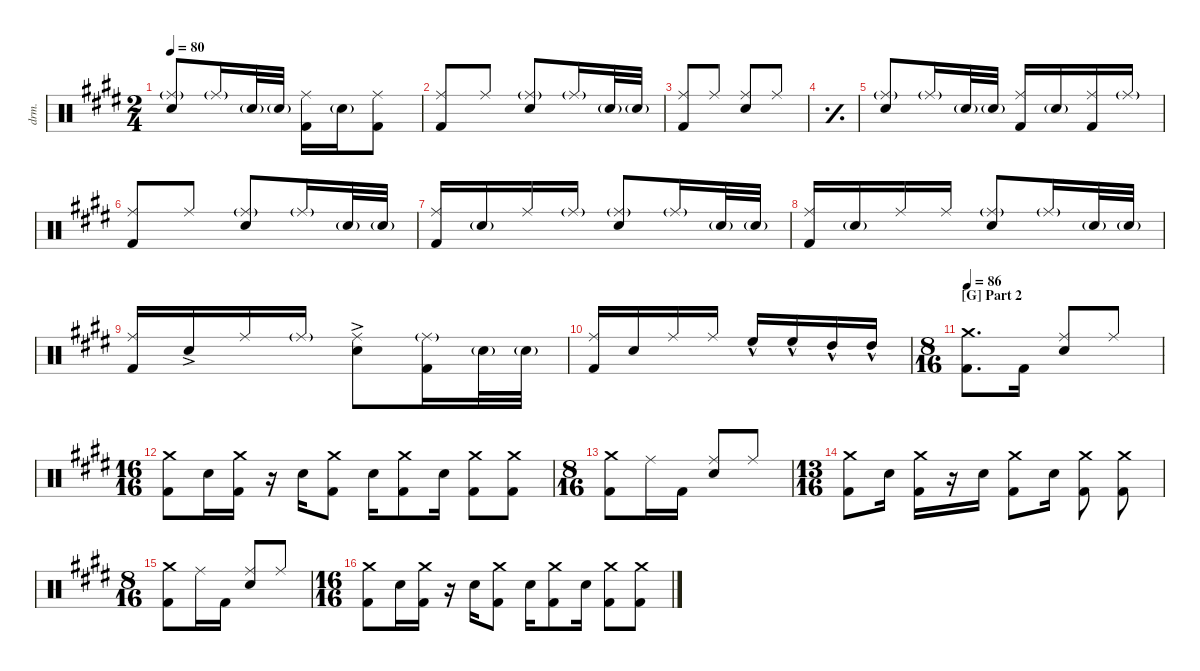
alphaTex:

\defaultSystemsLayout 4
\hideDynamics
\bracketExtendMode groupsimilarinstruments
\otherSystemsTrackNameOrientation horizontal
\chordDiagramsInScore
\track ("Drumkit" "drm.") {instrument percussion}
\staff {score}
\articulation defaults
\ts (2 4)
\tempo 80
\clef neutral
\scale
0.901139
\ks e
("Ride (middle)"{g acc forcenatural} "Snare (hit) 2"{acc forcenatural}).8{dy mf beam Up} "Ride (middle)"{g acc forcenatural}.16{beam Up} "Snare (hit) 2"{g acc forcenatural}.32{beam Up} "Snare (hit) 2"{g acc forcenatural}.32{beam Up} ("Ride (middle)"{acc forcenatural} "Kick (hit) 2"{acc forcenatural}).16 "Snare (hit) 2"{g acc forcenatural}.16 ("Ride (middle)"{acc forcenatural} "Kick (hit) 2"{acc forcenatural}).8 |
\scale
1.20033 ("Ride (middle)"{acc forcenatural} "Kick (hit) 2"{acc forcenatural}).8{beam Up} "Ride (middle)"{acc forcenatural}.8{beam Up} ("Ride (middle)"{g acc forcenatural} "Snare (hit) 2"{acc forcenatural}).8{beam Up} "Ride (middle)"{g acc forcenatural}.16{beam Up} "Snare (hit) 2"{g acc forcenatural}.32{beam Up} "Snare (hit) 2"{g acc forcenatural}.32{beam Up} |
\scale
0.880159 ("Kick (hit) 2"{acc forcenatural} "Ride (middle)"{acc forcenatural}).8{beam Up} "Ride (middle)"{acc forcenatural}.8{beam Up} ("Ride (middle)"{acc forcenatural} "Snare (hit) 2"{acc forcenatural}).8{beam Up} "Ride (middle)"{acc forcenatural}.8{beam Up} |
\simile simple
\scale
0.816181 |
\simile none
\scale
1.10333 ("Ride (middle)"{g acc forcenatural} "Snare (hit) 2"{acc forcenatural}).8{beam Up} "Ride (middle)"{g acc forcenatural}.16{beam Up} "Snare (hit) 2"{g acc forcenatural}.32{beam Up} "Snare (hit) 2"{g acc forcenatural}.32{beam Up} ("Ride (middle)"{acc forcenatural} "Kick (hit) 2"{acc forcenatural}).16{beam Up} "Snare (hit) 2"{g acc forcenatural}.16{beam Up} ("Kick (hit) 2"{acc forcenatural} "Ride (middle)"{acc forcenatural}).16{beam Up} "Ride (middle)"{g acc forcenatural}.16{beam Up} |
("Ride (middle)"{acc forcenatural} "Kick (hit) 2"{acc forcenatural}).8{beam Up} "Ride (middle)"{acc forcenatural}.8{beam Up} ("Ride (middle)"{g acc forcenatural} "Snare (hit) 2"{acc forcenatural}).8{beam Up} "Ride (middle)"{g acc forcenatural}.16{beam Up} "Snare (hit) 2"{g acc forcenatural}.32{beam Up} "Snare (hit) 2"{g acc forcenatural}.32{beam Up} |
("Kick (hit) 2"{acc forcenatural} "Ride (middle)"{acc forcenatural}).16{beam Up} "Snare (hit) 2"{g acc forcenatural}.16{beam Up} "Ride (middle)"{acc forcenatural}.16{beam Up} "Ride (middle)"{g acc forcenatural}.16{beam Up} ("Ride (middle)"{g acc forcenatural} "Snare (hit) 2"{acc forcenatural}).8{beam Up} "Ride (middle)"{g acc forcenatural}.16{beam Up} "Snare (hit) 2"{g acc forcenatural}.32{beam Up} "Snare (hit) 2"{g acc forcenatural}.32{beam Up} |
("Ride (middle)"{acc forcenatural} "Kick (hit) 2"{acc forcenatural}).16{beam Up} "Snare (hit) 2"{g acc forcenatural}.16{beam Up} "Ride (middle)"{acc forcenatural}.16{beam Up} "Ride (middle)"{acc forcenatural}.16{beam Up} ("Ride (middle)"{g acc forcenatural} "Snare (hit) 2"{acc forcenatural}).8{beam Up} "Ride (middle)"{g acc forcenatural}.16{beam Up} "Snare (hit) 2"{g acc forcenatural}.32{beam Up} "Snare (hit) 2"{g acc forcenatural}.32{beam Up} |
("Ride (middle)"{acc forcenatural} "Kick (hit) 2"{acc forcenatural}).16{beam Up} "Snare (hit) 2"{ac acc forcenatural}.16{beam Up} "Ride (middle)"{acc forcenatural}.16{beam Up} "Ride (middle)"{g acc forcenatural}.16{beam Up} ("Ride (middle)"{ac acc forcenatural} "Snare (hit) 2"{acc forcenatural}).8 ("Ride (middle)"{g acc forcenatural} "Kick (hit) 2"{acc forcenatural}).16 "Snare (hit) 2"{g acc forcenatural}.32 "Snare (hit) 2"{g acc forcenatural}.32 |
("Ride (middle)"{acc forcenatural} "Kick (hit) 2"{acc forcenatural}).16{beam Up} "Snare (hit) 2"{acc forcenatural}.16{beam Up} "Ride (middle)"{acc forcenatural}.16{beam Up} "Ride (middle)"{acc forcenatural}.16{beam Up} "High Floor Tom (hit)"{hac acc forcenatural}.16{beam Up} "High Floor Tom (hit)"{hac acc forcenatural}.16{beam Up} "High Tom (hit)"{hac acc forcenatural}.16{beam Up} "High Tom (hit)"{hac acc forcenatural}.16{beam Up} |
\ts (8 16)
\beaming (8 2 2)
\section ("G" "Part 2")
\tempo 86
("Crash medium (hit)"{acc forcenatural} "Kick (hit) 2"{acc forcenatural}).8{d} "Kick (hit) 2"{acc forcenatural}.16 ("Snare (hit) 2"{acc forcenatural} "Ride (middle)"{acc forcenatural}).8{beam Up} "Ride (middle)"{acc forcenatural}.8{beam Up} |
\ts (16 16)
\beaming (8 2 2 2 2)
("Crash medium (hit)"{acc forcenatural} "Kick (hit) 2"{acc forcenatural}).8 "Snare (hit) 2"{acc forcenatural}.16 ("Crash medium (hit)"{acc forcenatural} "Kick (hit) 2"{acc forcenatural}).16 r.16 "Snare (hit) 2"{acc forcenatural}.16 ("Crash medium (hit)"{acc forcenatural} "Kick (hit) 2"{acc forcenatural}).8 "Snare (hit) 2"{acc forcenatural}.16 ("Crash medium (hit)"{acc forcenatural} "Kick (hit) 2"{acc forcenatural}).8 "Snare (hit) 2"{acc forcenatural}.16 ("Crash medium (hit)"{acc forcenatural} "Kick (hit) 2"{acc forcenatural}).8 ("Crash medium (hit)"{acc forcenatural} "Kick (hit) 2"{acc forcenatural}).8 |
\ts (8 16)
\beaming (8 2 2)
("Crash medium (hit)"{acc forcenatural} "Kick (hit) 2"{acc forcenatural}).8 "Ride (middle)"{acc forcenatural}.16 "Kick (hit) 2"{acc forcenatural}.16 ("Ride (middle)"{acc forcenatural} "Snare (hit) 2"{acc forcenatural}).8{beam Up} "Ride (middle)"{acc forcenatural}.8{beam Up} |
\ts (13 16)
\beaming (16 3 3 3 2 2)
("Crash medium (hit)"{acc forcenatural} "Kick (hit) 2"{acc forcenatural}).8 "Snare (hit) 2"{acc forcenatural}.16 ("Crash medium (hit)"{acc forcenatural} "Kick (hit) 2"{acc forcenatural}).16 r.16 "Snare (hit) 2"{acc forcenatural}.16 ("Crash medium (hit)"{acc forcenatural} "Kick (hit) 2"{acc forcenatural}).8 "Snare (hit) 2"{acc forcenatural}.16 ("Crash medium (hit)"{acc forcenatural} "Kick (hit) 2"{acc forcenatural}).8 ("Crash medium (hit)"{acc forcenatural} "Kick (hit) 2"{acc forcenatural}).8 |
\ts (8 16)
\beaming (8 2 2)
("Crash medium (hit)"{acc forcenatural} "Kick (hit) 2"{acc forcenatural}).8 "Ride (middle)"{acc forcenatural}.16 "Kick (hit) 2"{acc forcenatural}.16 ("Ride (middle)"{acc forcenatural} "Snare (hit) 2"{acc forcenatural}).8{beam Up} "Ride (middle)"{acc forcenatural}.8{beam Up} |
\ts (16 16)
\beaming (8 2 2 2 2)
("Crash medium (hit)"{acc forcenatural} "Kick (hit) 2"{acc forcenatural}).8 "Snare (hit) 2"{acc forcenatural}.16 ("Crash medium (hit)"{acc forcenatural} "Kick (hit) 2"{acc forcenatural}).16 r.16 "Snare (hit) 2"{acc forcenatural}.16 ("Crash medium (hit)"{acc forcenatural} "Kick (hit) 2"{acc forcenatural}).8 "Snare (hit) 2"{acc forcenatural}.16 ("Crash medium (hit)"{acc forcenatural} "Kick (hit) 2"{acc forcenatural}).8 "Snare (hit) 2"{acc forcenatural}.16 ("Crash medium (hit)"{acc forcenatural} "Kick (hit) 2"{acc forcenatural}).8 ("Crash medium (hit)"{acc forcenatural} "Kick (hit) 2"{acc forcenatural}).8
